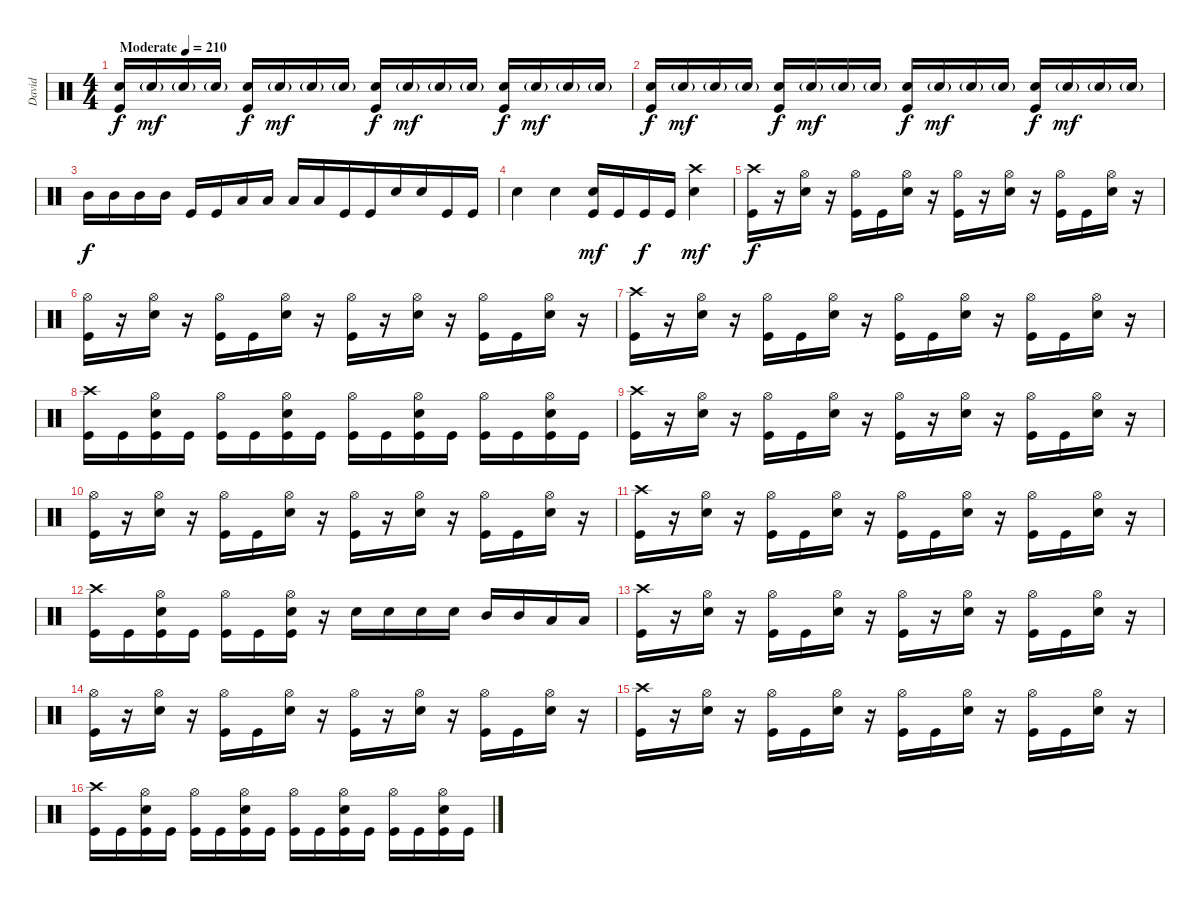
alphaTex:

\track ("David" "David") {instrument percussion}
\staff {score}
\articulation defaults
\ts (4 4)
\tempo (210 "Moderate")
\clef neutral
\ks c
("Electric Snare (hit)" "Kick (hit)").16{dy f} "Electric Snare (hit)"{g}.16{dy mf} "Electric Snare (hit)"{g}.16 "Electric Snare (hit)"{g}.16 ("Electric Snare (hit)" "Kick (hit)").16{dy f} "Electric Snare (hit)"{g}.16{dy mf} "Electric Snare (hit)"{g}.16 "Electric Snare (hit)"{g}.16 ("Electric Snare (hit)" "Kick (hit)").16{dy f} "Electric Snare (hit)"{g}.16{dy mf} "Electric Snare (hit)"{g}.16 "Electric Snare (hit)"{g}.16 ("Electric Snare (hit)" "Kick (hit)").16{dy f} "Electric Snare (hit)"{g}.16{dy mf} "Electric Snare (hit)"{g}.16 "Electric Snare (hit)"{g}.16 |
("Electric Snare (hit)" "Kick (hit)").16{dy f} "Electric Snare (hit)"{g}.16{dy mf} "Electric Snare (hit)"{g}.16 "Electric Snare (hit)"{g}.16 ("Electric Snare (hit)" "Kick (hit)").16{dy f} "Electric Snare (hit)"{g}.16{dy mf} "Electric Snare (hit)"{g}.16 "Electric Snare (hit)"{g}.16 ("Electric Snare (hit)" "Kick (hit)").16{dy f} "Electric Snare (hit)"{g}.16{dy mf} "Electric Snare (hit)"{g}.16 "Electric Snare (hit)"{g}.16 ("Electric Snare (hit)" "Kick (hit)").16{dy f} "Electric Snare (hit)"{g}.16{dy mf} "Electric Snare (hit)"{g}.16 "Electric Snare (hit)"{g}.16 |
"Mid Tom (hit)".16{dy f} "Mid Tom (hit)".16 "Mid Tom (hit)".16 "Mid Tom (hit)".16 "Kick (hit)".16 "Kick (hit)".16 "Low Tom (hit)".16 "Low Tom (hit)".16 "Low Tom (hit)".16 "Low Tom (hit)".16{beam merge} "Kick (hit)".16 "Kick (hit)".16{beam merge} "Electric Snare (hit)".16 "Electric Snare (hit)".16{beam merge} "Kick (hit)".16{beam merge} "Kick (hit)".16 |
"Electric Snare (hit)".4 "Electric Snare (hit)".4 ("Electric Snare (hit)" "Kick (hit)").16{dy mf} "Kick (hit)".16 "Kick (hit)".16{dy f} "Kick (hit)".16 ("Crash high (hit)" "Electric Snare (hit)").4{dy mf} |
("Crash high (hit)" "Kick (hit)").16{dy f} r.16 ("Hi-Hat (open)" "Electric Snare (hit)").16 r.16 ("Hi-Hat (open)" "Kick (hit)").16 "Kick (hit)".16 ("Hi-Hat (open)" "Electric Snare (hit)").16 r.16 ("Hi-Hat (open)" "Kick (hit)").16 r.16 ("Hi-Hat (open)" "Electric Snare (hit)").16 r.16 ("Hi-Hat (open)" "Kick (hit)").16 "Kick (hit)".16 ("Hi-Hat (open)" "Electric Snare (hit)").16 r.16 |
("Hi-Hat (open)" "Kick (hit)").16 r.16 ("Hi-Hat (open)" "Electric Snare (hit)").16 r.16 ("Hi-Hat (open)" "Kick (hit)").16 "Kick (hit)".16 ("Hi-Hat (open)" "Electric Snare (hit)").16 r.16 ("Hi-Hat (open)" "Kick (hit)").16 r.16 ("Hi-Hat (open)" "Electric Snare (hit)").16 r.16 ("Hi-Hat (open)" "Kick (hit)").16 "Kick (hit)".16 ("Hi-Hat (open)" "Electric Snare (hit)").16 r.16 |
("Crash high (hit)" "Kick (hit)").16 r.16 ("Hi-Hat (open)" "Electric Snare (hit)").16 r.16 ("Hi-Hat (open)" "Kick (hit)").16 "Kick (hit)".16 ("Hi-Hat (open)" "Electric Snare (hit)").16 r.16 ("Hi-Hat (open)" "Kick (hit)").16 "Kick (hit)".16 ("Hi-Hat (open)" "Electric Snare (hit)").16 r.16 ("Hi-Hat (open)" "Kick (hit)").16 "Kick (hit)".16 ("Hi-Hat (open)" "Electric Snare (hit)").16 r.16 |
("Crash high (hit)" "Kick (hit)").16 "Kick (hit)".16 ("Hi-Hat (open)" "Electric Snare (hit)" "Kick (hit)").16 "Kick (hit)".16 ("Hi-Hat (open)" "Kick (hit)").16 "Kick (hit)".16 ("Hi-Hat (open)" "Electric Snare (hit)" "Kick (hit)").16 "Kick (hit)".16 ("Hi-Hat (open)" "Kick (hit)").16 "Kick (hit)".16 ("Hi-Hat (open)" "Electric Snare (hit)" "Kick (hit)").16 "Kick (hit)".16 ("Hi-Hat (open)" "Kick (hit)").16 "Kick (hit)".16 ("Hi-Hat (open)" "Electric Snare (hit)" "Kick (hit)").16 "Kick (hit)".16 |
("Crash high (hit)" "Kick (hit)").16 r.16 ("Hi-Hat (open)" "Electric Snare (hit)").16 r.16 ("Hi-Hat (open)" "Kick (hit)").16 "Kick (hit)".16 ("Hi-Hat (open)" "Electric Snare (hit)").16 r.16 ("Hi-Hat (open)" "Kick (hit)").16 r.16 ("Hi-Hat (open)" "Electric Snare (hit)").16 r.16 ("Hi-Hat (open)" "Kick (hit)").16 "Kick (hit)".16 ("Hi-Hat (open)" "Electric Snare (hit)").16 r.16 |
("Hi-Hat (open)" "Kick (hit)").16 r.16 ("Hi-Hat (open)" "Electric Snare (hit)").16 r.16 ("Hi-Hat (open)" "Kick (hit)").16 "Kick (hit)".16 ("Hi-Hat (open)" "Electric Snare (hit)").16 r.16 ("Hi-Hat (open)" "Kick (hit)").16 r.16 ("Hi-Hat (open)" "Electric Snare (hit)").16 r.16 ("Hi-Hat (open)" "Kick (hit)").16 "Kick (hit)".16 ("Hi-Hat (open)" "Electric Snare (hit)").16 r.16 |
("Crash high (hit)" "Kick (hit)").16 r.16 ("Hi-Hat (open)" "Electric Snare (hit)").16 r.16 ("Hi-Hat (open)" "Kick (hit)").16 "Kick (hit)".16 ("Hi-Hat (open)" "Electric Snare (hit)").16 r.16 ("Hi-Hat (open)" "Kick (hit)").16 "Kick (hit)".16 ("Hi-Hat (open)" "Electric Snare (hit)").16 r.16 ("Hi-Hat (open)" "Kick (hit)").16 "Kick (hit)".16 ("Hi-Hat (open)" "Electric Snare (hit)").16 r.16 |
("Crash high (hit)" "Kick (hit)").16 "Kick (hit)".16 ("Hi-Hat (open)" "Electric Snare (hit)" "Kick (hit)").16 "Kick (hit)".16 ("Hi-Hat (open)" "Kick (hit)").16 "Kick (hit)".16 ("Hi-Hat (open)" "Electric Snare (hit)" "Kick (hit)").16 r.16 "Electric Snare (hit)".16 "Electric Snare (hit)".16 "Electric Snare (hit)".16 "Electric Snare (hit)".16 "Mid Tom (hit)".16 "Mid Tom (hit)".16 "Low Tom (hit)".16 "Low Tom (hit)".16 |
("Crash high (hit)" "Kick (hit)").16 r.16 ("Hi-Hat (open)" "Electric Snare (hit)").16 r.16 ("Hi-Hat (open)" "Kick (hit)").16 "Kick (hit)".16 ("Hi-Hat (open)" "Electric Snare (hit)").16 r.16 ("Hi-Hat (open)" "Kick (hit)").16 r.16 ("Hi-Hat (open)" "Electric Snare (hit)").16 r.16 ("Hi-Hat (open)" "Kick (hit)").16 "Kick (hit)".16 ("Hi-Hat (open)" "Electric Snare (hit)").16 r.16 |
("Hi-Hat (open)" "Kick (hit)").16 r.16 ("Hi-Hat (open)" "Electric Snare (hit)").16 r.16 ("Hi-Hat (open)" "Kick (hit)").16 "Kick (hit)".16 ("Hi-Hat (open)" "Electric Snare (hit)").16 r.16 ("Hi-Hat (open)" "Kick (hit)").16 r.16 ("Hi-Hat (open)" "Electric Snare (hit)").16 r.16 ("Hi-Hat (open)" "Kick (hit)").16 "Kick (hit)".16 ("Hi-Hat (open)" "Electric Snare (hit)").16 r.16 |
("Crash high (hit)" "Kick (hit)").16 r.16 ("Hi-Hat (open)" "Electric Snare (hit)").16 r.16 ("Hi-Hat (open)" "Kick (hit)").16 "Kick (hit)".16 ("Hi-Hat (open)" "Electric Snare (hit)").16 r.16 ("Hi-Hat (open)" "Kick (hit)").16 "Kick (hit)".16 ("Hi-Hat (open)" "Electric Snare (hit)").16 r.16 ("Hi-Hat (open)" "Kick (hit)").16 "Kick (hit)".16 ("Hi-Hat (open)" "Electric Snare (hit)").16 r.16 |
("Crash high (hit)" "Kick (hit)").16 "Kick (hit)".16 ("Hi-Hat (open)" "Electric Snare (hit)" "Kick (hit)").16 "Kick (hit)".16 ("Hi-Hat (open)" "Kick (hit)").16 "Kick (hit)".16 ("Hi-Hat (open)" "Electric Snare (hit)" "Kick (hit)").16 "Kick (hit)".16 ("Hi-Hat (open)" "Kick (hit)").16 "Kick (hit)".16 ("Hi-Hat (open)" "Electric Snare (hit)" "Kick (hit)").16 "Kick (hit)".16 ("Hi-Hat (open)" "Kick (hit)").16 "Kick (hit)".16 ("Hi-Hat (open)" "Electric Snare (hit)" "Kick (hit)").16 "Kick (hit)".16
